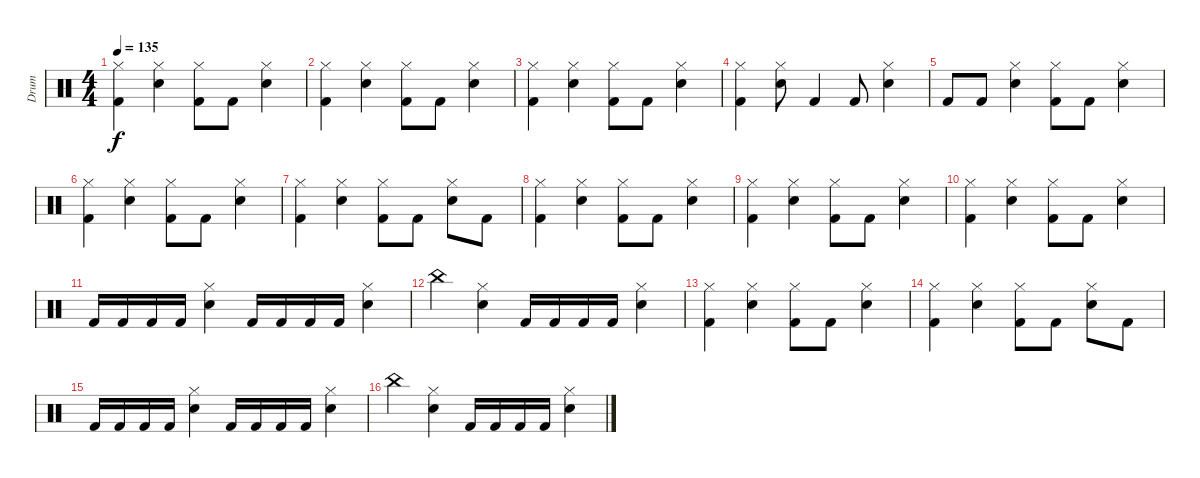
\track ("Drum" "Drum") {instrument percussion}
\staff {score}
\articulation defaults
\ts (4 4)
\tempo 135
\clef neutral
\ks c
("Kick (hit) 2" "Hi-Hat (closed)").4{dy f} ("Snare (hit) 2" "Hi-Hat (closed)").4 ("Kick (hit) 2" "Hi-Hat (closed)").8 "Kick (hit) 2".8 ("Snare (hit) 2" "Hi-Hat (closed)").4 |
("Kick (hit) 2" "Hi-Hat (closed)").4 ("Snare (hit) 2" "Hi-Hat (closed)").4 ("Kick (hit) 2" "Hi-Hat (closed)").8 "Kick (hit) 2".8 ("Snare (hit) 2" "Hi-Hat (closed)").4 |
("Kick (hit) 2" "Hi-Hat (closed)").4 ("Snare (hit) 2" "Hi-Hat (closed)").4 ("Kick (hit) 2" "Hi-Hat (closed)").8 "Kick (hit) 2".8 ("Snare (hit) 2" "Hi-Hat (closed)").4 |
("Kick (hit) 2" "Hi-Hat (closed)").4 ("Snare (hit) 2" "Hi-Hat (closed)").8 "Kick (hit) 2".4 "Kick (hit) 2".8 ("Snare (hit) 2" "Hi-Hat (closed)").4 |
"Kick (hit) 2".8 "Kick (hit) 2".8 ("Snare (hit) 2" "Hi-Hat (closed)").4 ("Kick (hit) 2" "Hi-Hat (closed)").8 "Kick (hit) 2".8 ("Snare (hit) 2" "Hi-Hat (closed)").4 |
("Kick (hit) 2" "Hi-Hat (closed)").4 ("Snare (hit) 2" "Hi-Hat (closed)").4 ("Kick (hit) 2" "Hi-Hat (closed)").8 "Kick (hit) 2".8 ("Snare (hit) 2" "Hi-Hat (closed)").4 |
("Kick (hit) 2" "Hi-Hat (closed)").4 ("Snare (hit) 2" "Hi-Hat (closed)").4 ("Kick (hit) 2" "Hi-Hat (closed)").8 "Kick (hit) 2".8 ("Snare (hit) 2" "Hi-Hat (closed)").8 "Kick (hit) 2".8 |
("Kick (hit) 2" "Hi-Hat (closed)").4 ("Snare (hit) 2" "Hi-Hat (closed)").4 ("Kick (hit) 2" "Hi-Hat (closed)").8 "Kick (hit) 2".8 ("Snare (hit) 2" "Hi-Hat (closed)").4 |
("Kick (hit) 2" "Hi-Hat (closed)").4 ("Snare (hit) 2" "Hi-Hat (closed)").4 ("Kick (hit) 2" "Hi-Hat (closed)").8 "Kick (hit) 2".8 ("Snare (hit) 2" "Hi-Hat (closed)").4 |
("Kick (hit) 2" "Hi-Hat (closed)").4 ("Snare (hit) 2" "Hi-Hat (closed)").4 ("Kick (hit) 2" "Hi-Hat (closed)").8 "Kick (hit) 2".8 ("Snare (hit) 2" "Hi-Hat (closed)").4 |
"Kick (hit) 2".16 "Kick (hit) 2".16 "Kick (hit) 2".16 "Kick (hit) 2".16 ("Snare (hit) 2" "Hi-Hat (closed)").4 "Kick (hit) 2".16 "Kick (hit) 2".16 "Kick (hit) 2".16 "Kick (hit) 2".16 ("Snare (hit) 2" "Hi-Hat (closed)").4 |
"China (hit)".4 ("Snare (hit) 2" "Hi-Hat (closed)").4 "Kick (hit) 2".16 "Kick (hit) 2".16 "Kick (hit) 2".16 "Kick (hit) 2".16 ("Snare (hit) 2" "Hi-Hat (closed)").4 |
("Kick (hit) 2" "Hi-Hat (closed)").4 ("Snare (hit) 2" "Hi-Hat (closed)").4 ("Kick (hit) 2" "Hi-Hat (closed)").8 "Kick (hit) 2".8 ("Snare (hit) 2" "Hi-Hat (closed)").4 |
("Kick (hit) 2" "Hi-Hat (closed)").4 ("Snare (hit) 2" "Hi-Hat (closed)").4 ("Kick (hit) 2" "Hi-Hat (closed)").8 "Kick (hit) 2".8 ("Snare (hit) 2" "Hi-Hat (closed)").8 "Kick (hit) 2".8 |
"Kick (hit) 2".16 "Kick (hit) 2".16 "Kick (hit) 2".16 "Kick (hit) 2".16 ("Snare (hit) 2" "Hi-Hat (closed)").4 "Kick (hit) 2".16 "Kick (hit) 2".16 "Kick (hit) 2".16 "Kick (hit) 2".16 ("Snare (hit) 2" "Hi-Hat (closed)").4 |
"China (hit)".4 ("Snare (hit) 2" "Hi-Hat (closed)").4 "Kick (hit) 2".16 "Kick (hit) 2".16 "Kick (hit) 2".16 "Kick (hit) 2".16 ("Snare (hit) 2" "Hi-Hat (closed)").4
